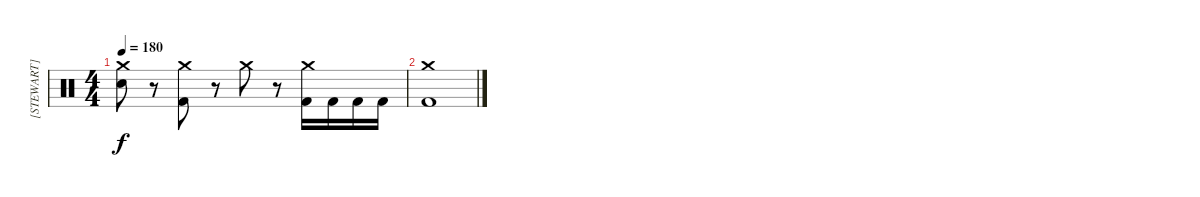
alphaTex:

\track ("[STEWART]" "[STEWART]") {instrument percussion}
\staff {score}
\articulation defaults
\ts (4 4)
\tempo 180
\clef neutral
\ks c
("Crash medium (hit)" "Snare (hit) 2").8{dy f} r.8 ("Crash medium (hit)" "Kick (hit) 2").8 r.8 "Crash medium (hit)".8 r.8 ("Crash medium (hit)" "Kick (hit) 2").16 "Kick (hit) 2".16 "Kick (hit) 2".16 "Kick (hit) 2".16 |
("Crash medium (hit)" "Kick (hit) 2").1
